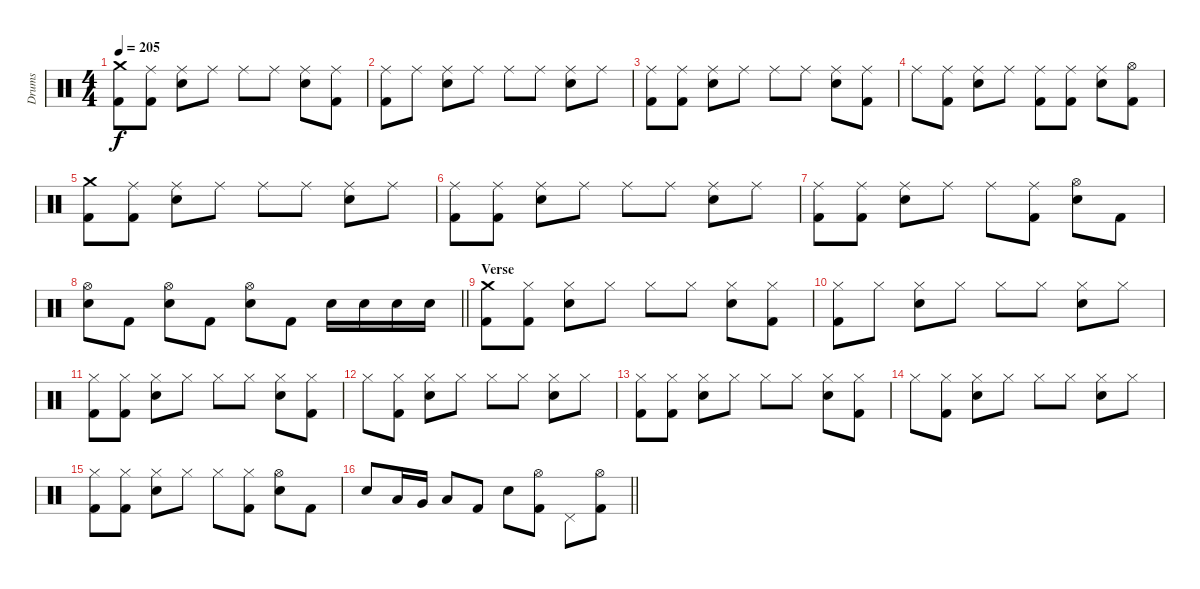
\track ("Drums" "Drums") {instrument percussion}
\staff {score}
\articulation defaults
\ts (4 4)
\tempo 205
\clef neutral
\ks c
("Crash medium (hit)" "Kick (hit) 2").8{dy f} ("Ride (middle)" "Kick (hit) 2").8 ("Ride (middle)" "Electric Snare (hit)").8 "Ride (middle)".8 "Ride (middle)".8 "Ride (middle)".8 ("Ride (middle)" "Electric Snare (hit)").8 ("Ride (middle)" "Kick (hit) 2").8 |
("Ride (middle)" "Kick (hit) 2").8 "Ride (middle)".8 ("Ride (middle)" "Electric Snare (hit)").8 "Ride (middle)".8 "Ride (middle)".8 "Ride (middle)".8 ("Ride (middle)" "Electric Snare (hit)").8 "Ride (middle)".8 |
("Ride (middle)" "Kick (hit) 2").8 ("Ride (middle)" "Kick (hit) 2").8 ("Ride (middle)" "Electric Snare (hit)").8 "Ride (middle)".8 "Ride (middle)".8 "Ride (middle)".8 ("Ride (middle)" "Electric Snare (hit)").8 ("Ride (middle)" "Kick (hit) 2").8 |
"Ride (middle)".8 ("Ride (middle)" "Kick (hit) 2").8 ("Ride (middle)" "Electric Snare (hit)").8 "Ride (middle)".8 ("Ride (middle)" "Kick (hit) 2").8 ("Ride (middle)" "Kick (hit) 2").8 ("Ride (middle)" "Electric Snare (hit)").8 ("Hi-Hat (open)" "Kick (hit) 2").8 |
("Crash medium (hit)" "Kick (hit) 2").8 ("Ride (middle)" "Kick (hit) 2").8 ("Ride (middle)" "Electric Snare (hit)").8 "Ride (middle)".8 "Ride (middle)".8 "Ride (middle)".8 ("Ride (middle)" "Electric Snare (hit)").8 "Ride (middle)".8 |
("Ride (middle)" "Kick (hit) 2").8 ("Ride (middle)" "Kick (hit) 2").8 ("Ride (middle)" "Electric Snare (hit)").8 "Ride (middle)".8 "Ride (middle)".8 "Ride (middle)".8 ("Ride (middle)" "Electric Snare (hit)").8 "Ride (middle)".8 |
("Ride (middle)" "Kick (hit) 2").8 ("Ride (middle)" "Kick (hit) 2").8 ("Ride (middle)" "Electric Snare (hit)").8 "Ride (middle)".8 "Ride (middle)".8 ("Ride (middle)" "Kick (hit) 2").8 ("Hi-Hat (open)" "Electric Snare (hit)").8 "Kick (hit) 2".8 |
\barLineRight lightlight
("Hi-Hat (open)" "Electric Snare (hit)").8 "Kick (hit) 2".8 ("Hi-Hat (open)" "Electric Snare (hit)").8 "Kick (hit) 2".8 ("Hi-Hat (open)" "Electric Snare (hit)").8 "Kick (hit) 2".8 "Electric Snare (hit)".16 "Electric Snare (hit)".16 "Electric Snare (hit)".16 "Electric Snare (hit)".16 |
\section ("" "Verse")
("Crash medium (hit)" "Kick (hit) 2").8 ("Hi-Hat (closed)" "Kick (hit) 2").8 ("Hi-Hat (closed)" "Electric Snare (hit)").8 "Hi-Hat (closed)".8 "Hi-Hat (closed)".8 "Hi-Hat (closed)".8 ("Hi-Hat (closed)" "Electric Snare (hit)").8 ("Hi-Hat (closed)" "Kick (hit) 2").8 |
("Hi-Hat (closed)" "Kick (hit) 2").8 "Hi-Hat (closed)".8 ("Hi-Hat (closed)" "Electric Snare (hit)").8 "Hi-Hat (closed)".8 "Hi-Hat (closed)".8 "Hi-Hat (closed)".8 ("Hi-Hat (closed)" "Electric Snare (hit)").8 "Hi-Hat (closed)".8 |
("Hi-Hat (closed)" "Kick (hit) 2").8 ("Hi-Hat (closed)" "Kick (hit) 2").8 ("Hi-Hat (closed)" "Electric Snare (hit)").8 "Hi-Hat (closed)".8 "Hi-Hat (closed)".8 "Hi-Hat (closed)".8 ("Hi-Hat (closed)" "Electric Snare (hit)").8 ("Hi-Hat (closed)" "Kick (hit) 2").8 |
"Hi-Hat (closed)".8 ("Hi-Hat (closed)" "Kick (hit) 2").8 ("Hi-Hat (closed)" "Electric Snare (hit)").8 "Hi-Hat (closed)".8 "Hi-Hat (closed)".8 "Hi-Hat (closed)".8 ("Hi-Hat (closed)" "Electric Snare (hit)").8 "Hi-Hat (closed)".8 |
("Hi-Hat (closed)" "Kick (hit) 2").8 ("Hi-Hat (closed)" "Kick (hit) 2").8 ("Hi-Hat (closed)" "Electric Snare (hit)").8 "Hi-Hat (closed)".8 "Hi-Hat (closed)".8 "Hi-Hat (closed)".8 ("Hi-Hat (closed)" "Electric Snare (hit)").8 ("Hi-Hat (closed)" "Kick (hit) 2").8 |
"Hi-Hat (closed)".8 ("Hi-Hat (closed)" "Kick (hit) 2").8 ("Hi-Hat (closed)" "Electric Snare (hit)").8 "Hi-Hat (closed)".8 "Hi-Hat (closed)".8 "Hi-Hat (closed)".8 ("Hi-Hat (closed)" "Electric Snare (hit)").8 "Hi-Hat (closed)".8 |
("Hi-Hat (closed)" "Kick (hit) 2").8 ("Hi-Hat (closed)" "Kick (hit) 2").8 ("Hi-Hat (closed)" "Electric Snare (hit)").8 "Hi-Hat (closed)".8 "Hi-Hat (closed)".8 ("Hi-Hat (closed)" "Kick (hit) 2").8 ("Hi-Hat (open)" "Electric Snare (hit)").8 "Kick (hit) 2".8 |
\barLineRight lightlight "Electric Snare (hit)".8 "Low Tom (hit)".16 "Very Low Tom (hit)".16 "Low Floor Tom (hit)".8 "Kick (hit) 2".8 "Electric Snare (hit)".8
("Hi-Hat (open)" "Kick (hit) 2").8 "Pedal Hi-Hat (hit)".8 ("Hi-Hat (open)" "Kick (hit) 2").8
